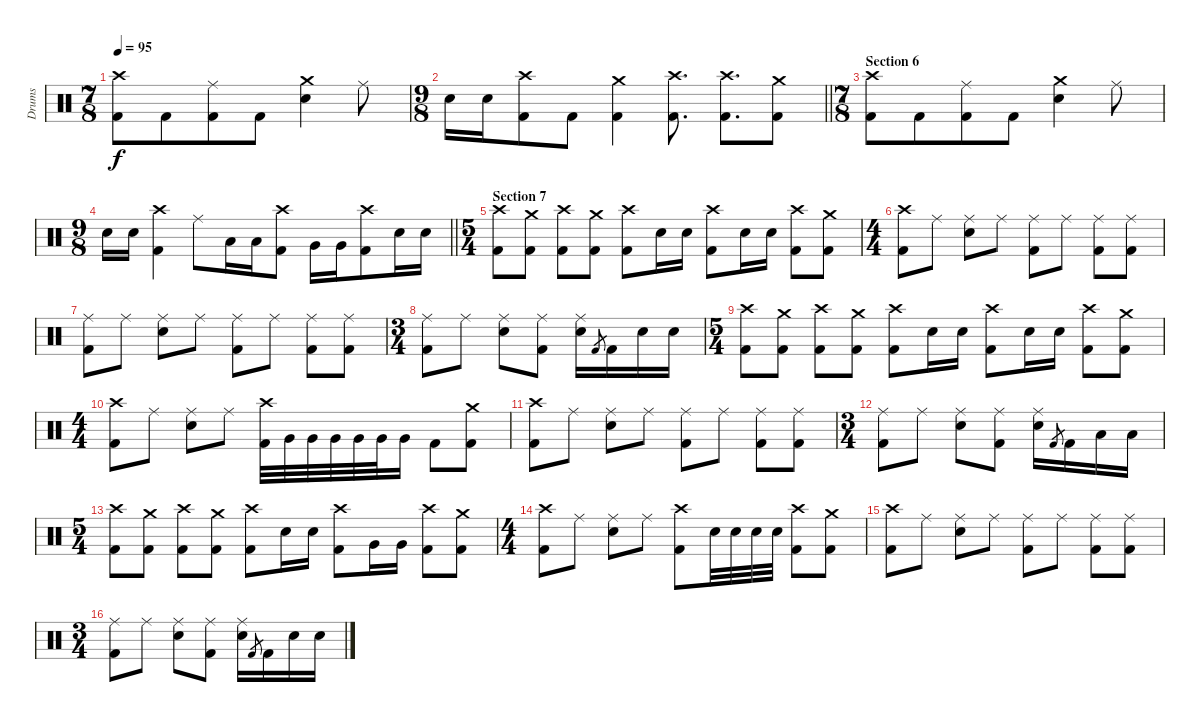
\track ("Drums" "Drums") {instrument percussion}
\staff {score}
\articulation defaults
\ts (7 8)
\tempo 95
\clef neutral
\ks c
("Crash high (hit)" "Kick (hit) 2").8{dy f} "Kick (hit) 2".8 ("Ride (middle)" "Kick (hit) 2").8 "Kick (hit) 2".8 ("Crash medium (hit)" "Snare (hit) 2").4 "Ride (middle)".8 |
\ts (9 8)
\barLineRight lightlight "Snare (hit) 2".16 "Snare (hit) 2".16
("Crash high (hit)" "Kick (hit) 2").8 "Kick (hit) 2".8 ("Crash medium (hit)" "Kick (hit) 2").4 ("Crash high (hit)" "Kick (hit) 2").8{d} ("Crash high (hit)" "Kick (hit) 2").8{d} ("Crash medium (hit)" "Kick (hit) 2").8 |
\ts (7 8)
\section ("" "Section 6")
("Crash high (hit)" "Kick (hit) 2").8 "Kick (hit) 2".8 ("Ride (middle)" "Kick (hit) 2").8 "Kick (hit) 2".8 ("Crash medium (hit)" "Snare (hit) 2").4 "Ride (middle)".8 |
\ts (9 8)
\barLineRight lightlight "Snare (hit) 2".16 "Snare (hit) 2".16
("Crash high (hit)" "Kick (hit) 2").4 "Ride (middle)".8 "Low Tom (hit)".16 "Low Tom (hit)".16 ("Crash high (hit)" "Kick (hit) 2").8 "Very Low Tom (hit)".16 "Very Low Tom (hit)".16 ("Crash high (hit)" "Kick (hit) 2").8 "Snare (hit) 2".16 "Snare (hit) 2".16 |
\ts (5 4)
\section ("" "Section 7")
("Crash high (hit)" "Kick (hit) 2").8 ("Crash medium (hit)" "Kick (hit) 2").8 ("Crash high (hit)" "Kick (hit) 2").8 ("Crash medium (hit)" "Kick (hit) 2").8 ("Crash high (hit)" "Kick (hit) 2").8 "Snare (hit) 2".16 "Snare (hit) 2".16 ("Crash high (hit)" "Kick (hit) 2").8 "Snare (hit) 2".16 "Snare (hit) 2".16 ("Crash high (hit)" "Kick (hit) 2").8 ("Crash medium (hit)" "Kick (hit) 2").8 |
\ts (4 4)
("Crash high (hit)" "Kick (hit) 2").8 "Ride (middle)".8 ("Ride (middle)" "Snare (hit) 2").8 "Ride (middle)".8 ("Ride (middle)" "Kick (hit) 2").8 "Ride (middle)".8 ("Ride (middle)" "Kick (hit) 2").8 ("Ride (middle)" "Kick (hit) 2").8 |
("Ride (middle)" "Kick (hit) 2").8 "Ride (middle)".8 ("Ride (middle)" "Snare (hit) 2").8 "Ride (middle)".8 ("Ride (middle)" "Kick (hit) 2").8 "Ride (middle)".8 ("Ride (middle)" "Kick (hit) 2").8 ("Ride (middle)" "Kick (hit) 2").8 |
\ts (3 4)
("Ride (middle)" "Kick (hit) 2").8 "Ride (middle)".8 ("Ride (middle)" "Snare (hit) 2").8 ("Ride (middle)" "Kick (hit) 2").8 ("Ride (middle)" "Snare (hit) 2").16 "Kick (hit) 2".8{gr} "Kick (hit) 2".16 "Snare (hit) 2".16 "Snare (hit) 2".16 |
\ts (5 4)
("Crash high (hit)" "Kick (hit) 2").8 ("Crash medium (hit)" "Kick (hit) 2").8 ("Crash high (hit)" "Kick (hit) 2").8 ("Crash medium (hit)" "Kick (hit) 2").8 ("Crash high (hit)" "Kick (hit) 2").8 "Snare (hit) 2".16 "Snare (hit) 2".16 ("Crash high (hit)" "Kick (hit) 2").8 "Snare (hit) 2".16 "Snare (hit) 2".16 ("Crash high (hit)" "Kick (hit) 2").8 ("Crash medium (hit)" "Kick (hit) 2").8 |
\ts (4 4)
("Crash high (hit)" "Kick (hit) 2").8 "Ride (middle)".8 ("Ride (middle)" "Electric Snare (hit)").8 "Ride (middle)".8 ("Crash high (hit)" "Kick (hit) 2").32 "Very Low Tom (hit)".32 "Very Low Tom (hit)".32 "Very Low Tom (hit)".32 "Very Low Tom (hit)".32 "Very Low Tom (hit)".32 "Very Low Tom (hit)".16 "Kick (hit) 2".8 ("Crash medium (hit)" "Kick (hit) 2").8 |
("Crash high (hit)" "Kick (hit) 2").8 "Ride (middle)".8 ("Ride (middle)" "Snare (hit) 2").8 "Ride (middle)".8 ("Ride (middle)" "Kick (hit) 2").8 "Ride (middle)".8 ("Ride (middle)" "Kick (hit) 2").8 ("Ride (middle)" "Kick (hit) 2").8 |
\ts (3 4)
("Ride (middle)" "Kick (hit) 2").8 "Ride (middle)".8 ("Ride (middle)" "Snare (hit) 2").8 ("Ride (middle)" "Kick (hit) 2").8 ("Ride (middle)" "Snare (hit) 2").16 "Kick (hit) 2".8{gr} "Kick (hit) 2".16 "Low Tom (hit)".16 "Low Tom (hit)".16 |
\ts (5 4)
("Crash high (hit)" "Kick (hit) 2").8 ("Crash medium (hit)" "Kick (hit) 2").8 ("Crash high (hit)" "Kick (hit) 2").8 ("Crash medium (hit)" "Kick (hit) 2").8 ("Crash high (hit)" "Kick (hit) 2").8 "Snare (hit) 2".16 "Snare (hit) 2".16 ("Crash high (hit)" "Kick (hit) 2").8 "Very Low Tom (hit)".16 "Very Low Tom (hit)".16 ("Crash high (hit)" "Kick (hit) 2").8 ("Crash medium (hit)" "Kick (hit) 2").8 |
\ts (4 4)
("Crash high (hit)" "Kick (hit) 2").8 "Ride (middle)".8 ("Ride (middle)" "Snare (hit) 2").8 "Ride (middle)".8 ("Crash high (hit)" "Kick (hit) 2").8 "Snare (hit) 2".32 "Snare (hit) 2".32 "Snare (hit) 2".32 "Snare (hit) 2".32 ("Crash high (hit)" "Kick (hit) 2").8 ("Crash medium (hit)" "Kick (hit) 2").8 |
("Crash high (hit)" "Kick (hit) 2").8 "Ride (middle)".8 ("Ride (middle)" "Snare (hit) 2").8 "Ride (middle)".8 ("Ride (middle)" "Kick (hit) 2").8 "Ride (middle)".8 ("Ride (middle)" "Kick (hit) 2").8 ("Ride (middle)" "Kick (hit) 2").8 |
\ts (3 4)
("Ride (middle)" "Kick (hit) 2").8 "Ride (middle)".8 ("Ride (middle)" "Snare (hit) 2").8 ("Ride (middle)" "Kick (hit) 2").8 ("Ride (middle)" "Snare (hit) 2").16 "Kick (hit) 2".8{gr} "Kick (hit) 2".16 "Snare (hit) 2".16 "Snare (hit) 2".16
